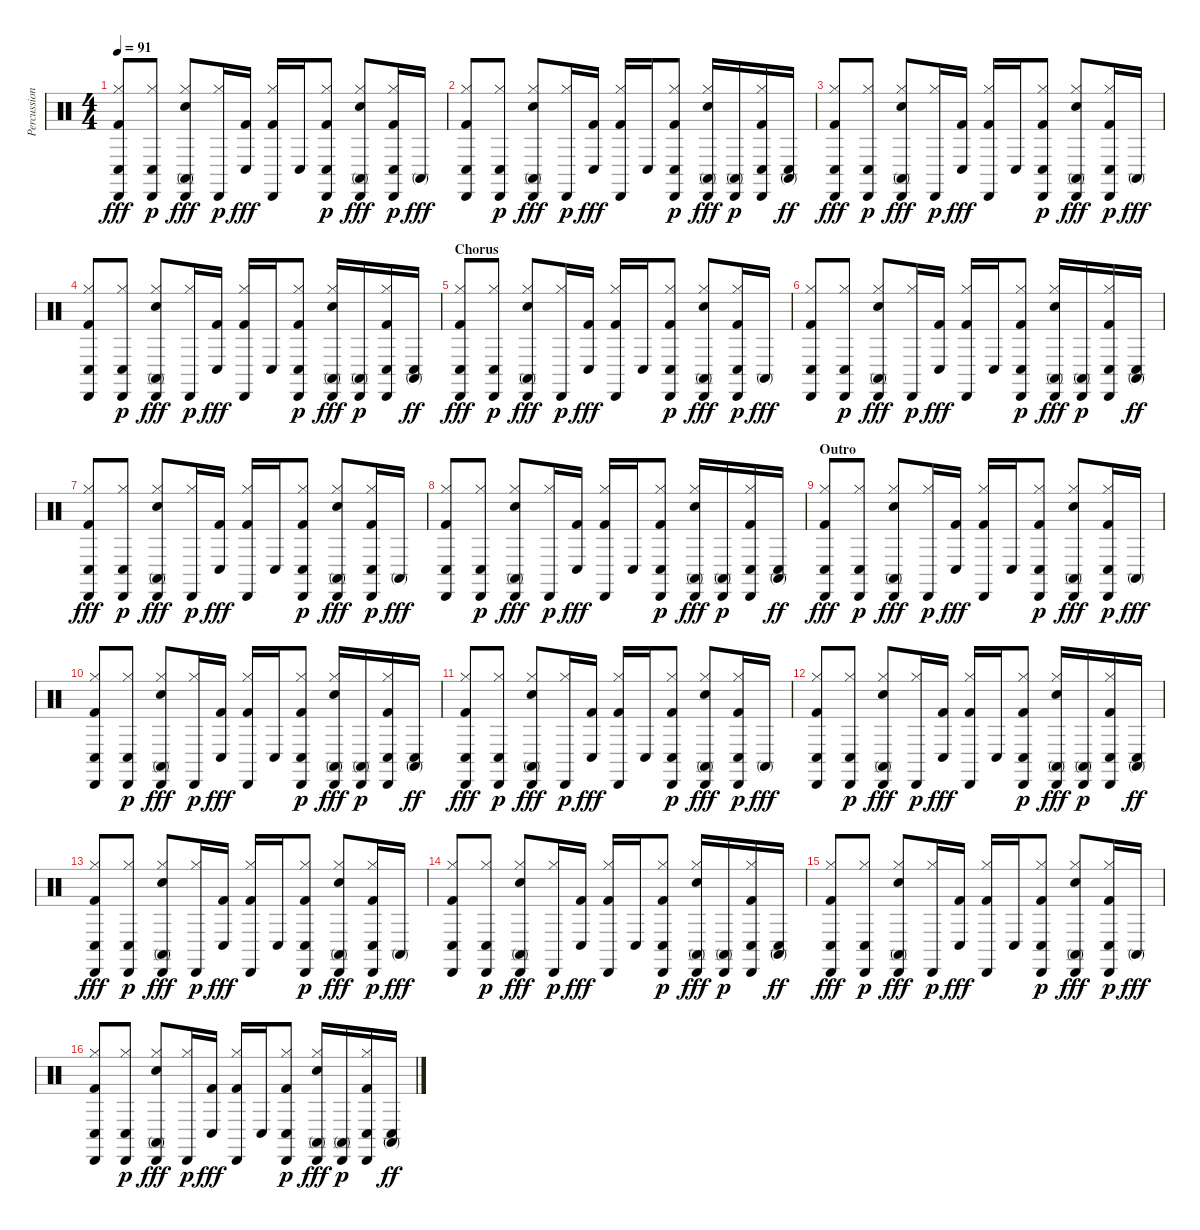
\track ("Percussion" "Percussion") {instrument percussion}
\staff {score}
\articulation defaults
\ts (4 4)
\tempo 91
\clef neutral
\ks c
("Kick (hit) 2" "Hi-Hat (closed)" "Conga low (hit)" "Cabasa (hit)").8{dy fff} ("Hi-Hat (closed)" "Conga low (hit)" "Cabasa (hit)").8{dy p} ("Snare (hit) 2" "Hi-Hat (closed)" "Conga high (mute)" "Cabasa (hit)").8{dy fff} ("Hi-Hat (closed)" "Cabasa (hit)").16{dy p} ("Kick (hit) 2" "Conga low (hit)").16{dy fff} ("Kick (hit) 2" "Hi-Hat (closed)" "Cabasa (hit)").16 "Conga low (hit)".16 ("Kick (hit) 2" "Hi-Hat (closed)" "Conga low (hit)" "Cabasa (hit)").8{dy p} ("Snare (hit) 2" "Hi-Hat (closed)" "Conga high (mute)" "Cabasa (hit)").8{dy fff} ("Kick (hit) 2" "Hi-Hat (closed)" "Conga low (hit)" "Cabasa (hit)").16{dy p} "Conga high (mute)".16{dy fff} |
("Kick (hit) 2" "Hi-Hat (closed)" "Conga low (hit)" "Cabasa (hit)").8 ("Hi-Hat (closed)" "Conga low (hit)" "Cabasa (hit)").8{dy p} ("Snare (hit) 2" "Hi-Hat (closed)" "Conga high (mute)" "Cabasa (hit)").8{dy fff} ("Hi-Hat (closed)" "Cabasa (hit)").16{dy p} ("Kick (hit) 2" "Conga low (hit)").16{dy fff} ("Kick (hit) 2" "Hi-Hat (closed)" "Cabasa (hit)").16 "Conga low (hit)".16 ("Kick (hit) 2" "Hi-Hat (closed)" "Conga low (hit)" "Cabasa (hit)").8{dy p} ("Snare (hit) 2" "Hi-Hat (closed)" "Conga high (mute)" "Cabasa (hit)").16{dy fff} ("Conga high (mute)" "Cabasa (hit)").16{dy p} ("Kick (hit) 2" "Hi-Hat (closed)" "Conga low (hit)" "Cabasa (hit)").16 ("Conga high (mute)" "Conga low (hit)").16{dy ff} |
("Kick (hit) 2" "Hi-Hat (closed)" "Conga low (hit)" "Cabasa (hit)").8{dy fff} ("Hi-Hat (closed)" "Conga low (hit)" "Cabasa (hit)").8{dy p} ("Snare (hit) 2" "Hi-Hat (closed)" "Conga high (mute)" "Cabasa (hit)").8{dy fff} ("Hi-Hat (closed)" "Cabasa (hit)").16{dy p} ("Kick (hit) 2" "Conga low (hit)").16{dy fff} ("Kick (hit) 2" "Hi-Hat (closed)" "Cabasa (hit)").16 "Conga low (hit)".16 ("Kick (hit) 2" "Hi-Hat (closed)" "Conga low (hit)" "Cabasa (hit)").8{dy p} ("Snare (hit) 2" "Hi-Hat (closed)" "Conga high (mute)" "Cabasa (hit)").8{dy fff} ("Kick (hit) 2" "Hi-Hat (closed)" "Conga low (hit)" "Cabasa (hit)").16{dy p} "Conga high (mute)".16{dy fff} |
("Kick (hit) 2" "Hi-Hat (closed)" "Conga low (hit)" "Cabasa (hit)").8 ("Hi-Hat (closed)" "Conga low (hit)" "Cabasa (hit)").8{dy p} ("Snare (hit) 2" "Hi-Hat (closed)" "Conga high (mute)" "Cabasa (hit)").8{dy fff} ("Hi-Hat (closed)" "Cabasa (hit)").16{dy p} ("Kick (hit) 2" "Conga low (hit)").16{dy fff} ("Kick (hit) 2" "Hi-Hat (closed)" "Cabasa (hit)").16 "Conga low (hit)".16 ("Kick (hit) 2" "Hi-Hat (closed)" "Conga low (hit)" "Cabasa (hit)").8{dy p} ("Snare (hit) 2" "Hi-Hat (closed)" "Conga high (mute)" "Cabasa (hit)").16{dy fff} ("Conga high (mute)" "Cabasa (hit)").16{dy p} ("Kick (hit) 2" "Hi-Hat (closed)" "Conga low (hit)" "Cabasa (hit)").16 ("Conga high (mute)" "Conga low (hit)").16{dy ff} |
\section ("" "Chorus")
("Kick (hit) 2" "Hi-Hat (closed)" "Conga low (hit)" "Cabasa (hit)").8{dy fff} ("Hi-Hat (closed)" "Conga low (hit)" "Cabasa (hit)").8{dy p} ("Snare (hit) 2" "Hi-Hat (closed)" "Conga high (mute)" "Cabasa (hit)").8{dy fff} ("Hi-Hat (closed)" "Cabasa (hit)").16{dy p} ("Kick (hit) 2" "Conga low (hit)").16{dy fff} ("Kick (hit) 2" "Hi-Hat (closed)" "Cabasa (hit)").16 "Conga low (hit)".16 ("Kick (hit) 2" "Hi-Hat (closed)" "Conga low (hit)" "Cabasa (hit)").8{dy p} ("Snare (hit) 2" "Hi-Hat (closed)" "Conga high (mute)" "Cabasa (hit)").8{dy fff} ("Kick (hit) 2" "Hi-Hat (closed)" "Conga low (hit)" "Cabasa (hit)").16{dy p} "Conga high (mute)".16{dy fff} |
("Kick (hit) 2" "Hi-Hat (closed)" "Conga low (hit)" "Cabasa (hit)").8 ("Hi-Hat (closed)" "Conga low (hit)" "Cabasa (hit)").8{dy p} ("Snare (hit) 2" "Hi-Hat (closed)" "Conga high (mute)" "Cabasa (hit)").8{dy fff} ("Hi-Hat (closed)" "Cabasa (hit)").16{dy p} ("Kick (hit) 2" "Conga low (hit)").16{dy fff} ("Kick (hit) 2" "Hi-Hat (closed)" "Cabasa (hit)").16 "Conga low (hit)".16 ("Kick (hit) 2" "Hi-Hat (closed)" "Conga low (hit)" "Cabasa (hit)").8{dy p} ("Snare (hit) 2" "Hi-Hat (closed)" "Conga high (mute)" "Cabasa (hit)").16{dy fff} ("Conga high (mute)" "Cabasa (hit)").16{dy p} ("Kick (hit) 2" "Hi-Hat (closed)" "Conga low (hit)" "Cabasa (hit)").16 ("Conga high (mute)" "Conga low (hit)").16{dy ff} |
("Kick (hit) 2" "Hi-Hat (closed)" "Conga low (hit)" "Cabasa (hit)").8{dy fff} ("Hi-Hat (closed)" "Conga low (hit)" "Cabasa (hit)").8{dy p} ("Snare (hit) 2" "Hi-Hat (closed)" "Conga high (mute)" "Cabasa (hit)").8{dy fff} ("Hi-Hat (closed)" "Cabasa (hit)").16{dy p} ("Kick (hit) 2" "Conga low (hit)").16{dy fff} ("Kick (hit) 2" "Hi-Hat (closed)" "Cabasa (hit)").16 "Conga low (hit)".16 ("Kick (hit) 2" "Hi-Hat (closed)" "Conga low (hit)" "Cabasa (hit)").8{dy p} ("Snare (hit) 2" "Hi-Hat (closed)" "Conga high (mute)" "Cabasa (hit)").8{dy fff} ("Kick (hit) 2" "Hi-Hat (closed)" "Conga low (hit)" "Cabasa (hit)").16{dy p} "Conga high (mute)".16{dy fff} |
("Kick (hit) 2" "Hi-Hat (closed)" "Conga low (hit)" "Cabasa (hit)").8 ("Hi-Hat (closed)" "Conga low (hit)" "Cabasa (hit)").8{dy p} ("Snare (hit) 2" "Hi-Hat (closed)" "Conga high (mute)" "Cabasa (hit)").8{dy fff} ("Hi-Hat (closed)" "Cabasa (hit)").16{dy p} ("Kick (hit) 2" "Conga low (hit)").16{dy fff} ("Kick (hit) 2" "Hi-Hat (closed)" "Cabasa (hit)").16 "Conga low (hit)".16 ("Kick (hit) 2" "Hi-Hat (closed)" "Conga low (hit)" "Cabasa (hit)").8{dy p} ("Snare (hit) 2" "Hi-Hat (closed)" "Conga high (mute)" "Cabasa (hit)").16{dy fff} ("Conga high (mute)" "Cabasa (hit)").16{dy p} ("Kick (hit) 2" "Hi-Hat (closed)" "Conga low (hit)" "Cabasa (hit)").16 ("Conga high (mute)" "Conga low (hit)").16{dy ff} |
\section ("" "Outro")
("Kick (hit) 2" "Hi-Hat (closed)" "Conga low (hit)" "Cabasa (hit)").8{dy fff} ("Hi-Hat (closed)" "Conga low (hit)" "Cabasa (hit)").8{dy p} ("Snare (hit) 2" "Hi-Hat (closed)" "Conga high (mute)" "Cabasa (hit)").8{dy fff} ("Hi-Hat (closed)" "Cabasa (hit)").16{dy p} ("Kick (hit) 2" "Conga low (hit)").16{dy fff} ("Kick (hit) 2" "Hi-Hat (closed)" "Cabasa (hit)").16 "Conga low (hit)".16 ("Kick (hit) 2" "Hi-Hat (closed)" "Conga low (hit)" "Cabasa (hit)").8{dy p} ("Snare (hit) 2" "Hi-Hat (closed)" "Conga high (mute)" "Cabasa (hit)").8{dy fff} ("Kick (hit) 2" "Hi-Hat (closed)" "Conga low (hit)" "Cabasa (hit)").16{dy p} "Conga high (mute)".16{dy fff} |
("Kick (hit) 2" "Hi-Hat (closed)" "Conga low (hit)" "Cabasa (hit)").8 ("Hi-Hat (closed)" "Conga low (hit)" "Cabasa (hit)").8{dy p} ("Snare (hit) 2" "Hi-Hat (closed)" "Conga high (mute)" "Cabasa (hit)").8{dy fff} ("Hi-Hat (closed)" "Cabasa (hit)").16{dy p} ("Kick (hit) 2" "Conga low (hit)").16{dy fff} ("Kick (hit) 2" "Hi-Hat (closed)" "Cabasa (hit)").16 "Conga low (hit)".16 ("Kick (hit) 2" "Hi-Hat (closed)" "Conga low (hit)" "Cabasa (hit)").8{dy p} ("Snare (hit) 2" "Hi-Hat (closed)" "Conga high (mute)" "Cabasa (hit)").16{dy fff} ("Conga high (mute)" "Cabasa (hit)").16{dy p} ("Kick (hit) 2" "Hi-Hat (closed)" "Conga low (hit)" "Cabasa (hit)").16 ("Conga high (mute)" "Conga low (hit)").16{dy ff} |
("Kick (hit) 2" "Hi-Hat (closed)" "Conga low (hit)" "Cabasa (hit)").8{dy fff} ("Hi-Hat (closed)" "Conga low (hit)" "Cabasa (hit)").8{dy p} ("Snare (hit) 2" "Hi-Hat (closed)" "Conga high (mute)" "Cabasa (hit)").8{dy fff} ("Hi-Hat (closed)" "Cabasa (hit)").16{dy p} ("Kick (hit) 2" "Conga low (hit)").16{dy fff} ("Kick (hit) 2" "Hi-Hat (closed)" "Cabasa (hit)").16 "Conga low (hit)".16 ("Kick (hit) 2" "Hi-Hat (closed)" "Conga low (hit)" "Cabasa (hit)").8{dy p} ("Snare (hit) 2" "Hi-Hat (closed)" "Conga high (mute)" "Cabasa (hit)").8{dy fff} ("Kick (hit) 2" "Hi-Hat (closed)" "Conga low (hit)" "Cabasa (hit)").16{dy p} "Conga high (mute)".16{dy fff} |
("Kick (hit) 2" "Hi-Hat (closed)" "Conga low (hit)" "Cabasa (hit)").8 ("Hi-Hat (closed)" "Conga low (hit)" "Cabasa (hit)").8{dy p} ("Snare (hit) 2" "Hi-Hat (closed)" "Conga high (mute)" "Cabasa (hit)").8{dy fff} ("Hi-Hat (closed)" "Cabasa (hit)").16{dy p} ("Kick (hit) 2" "Conga low (hit)").16{dy fff} ("Kick (hit) 2" "Hi-Hat (closed)" "Cabasa (hit)").16 "Conga low (hit)".16 ("Kick (hit) 2" "Hi-Hat (closed)" "Conga low (hit)" "Cabasa (hit)").8{dy p} ("Snare (hit) 2" "Hi-Hat (closed)" "Conga high (mute)" "Cabasa (hit)").16{dy fff} ("Conga high (mute)" "Cabasa (hit)").16{dy p} ("Kick (hit) 2" "Hi-Hat (closed)" "Conga low (hit)" "Cabasa (hit)").16 ("Conga high (mute)" "Conga low (hit)").16{dy ff} |
("Kick (hit) 2" "Hi-Hat (closed)" "Conga low (hit)" "Cabasa (hit)").8{dy fff} ("Hi-Hat (closed)" "Conga low (hit)" "Cabasa (hit)").8{dy p} ("Snare (hit) 2" "Hi-Hat (closed)" "Conga high (mute)" "Cabasa (hit)").8{dy fff} ("Hi-Hat (closed)" "Cabasa (hit)").16{dy p} ("Kick (hit) 2" "Conga low (hit)").16{dy fff} ("Kick (hit) 2" "Hi-Hat (closed)" "Cabasa (hit)").16 "Conga low (hit)".16 ("Kick (hit) 2" "Hi-Hat (closed)" "Conga low (hit)" "Cabasa (hit)").8{dy p} ("Snare (hit) 2" "Hi-Hat (closed)" "Conga high (mute)" "Cabasa (hit)").8{dy fff} ("Kick (hit) 2" "Hi-Hat (closed)" "Conga low (hit)" "Cabasa (hit)").16{dy p} "Conga high (mute)".16{dy fff} |
("Kick (hit) 2" "Hi-Hat (closed)" "Conga low (hit)" "Cabasa (hit)").8 ("Hi-Hat (closed)" "Conga low (hit)" "Cabasa (hit)").8{dy p} ("Snare (hit) 2" "Hi-Hat (closed)" "Conga high (mute)" "Cabasa (hit)").8{dy fff} ("Hi-Hat (closed)" "Cabasa (hit)").16{dy p} ("Kick (hit) 2" "Conga low (hit)").16{dy fff} ("Kick (hit) 2" "Hi-Hat (closed)" "Cabasa (hit)").16 "Conga low (hit)".16 ("Kick (hit) 2" "Hi-Hat (closed)" "Conga low (hit)" "Cabasa (hit)").8{dy p} ("Snare (hit) 2" "Hi-Hat (closed)" "Conga high (mute)" "Cabasa (hit)").16{dy fff} ("Conga high (mute)" "Cabasa (hit)").16{dy p} ("Kick (hit) 2" "Hi-Hat (closed)" "Conga low (hit)" "Cabasa (hit)").16 ("Conga high (mute)" "Conga low (hit)").16{dy ff} |
("Kick (hit) 2" "Hi-Hat (closed)" "Conga low (hit)" "Cabasa (hit)").8{dy fff} ("Hi-Hat (closed)" "Conga low (hit)" "Cabasa (hit)").8{dy p} ("Snare (hit) 2" "Hi-Hat (closed)" "Conga high (mute)" "Cabasa (hit)").8{dy fff} ("Hi-Hat (closed)" "Cabasa (hit)").16{dy p} ("Kick (hit) 2" "Conga low (hit)").16{dy fff} ("Kick (hit) 2" "Hi-Hat (closed)" "Cabasa (hit)").16 "Conga low (hit)".16 ("Kick (hit) 2" "Hi-Hat (closed)" "Conga low (hit)" "Cabasa (hit)").8{dy p} ("Snare (hit) 2" "Hi-Hat (closed)" "Conga high (mute)" "Cabasa (hit)").8{dy fff} ("Kick (hit) 2" "Hi-Hat (closed)" "Conga low (hit)" "Cabasa (hit)").16{dy p} "Conga high (mute)".16{dy fff} |
("Kick (hit) 2" "Hi-Hat (closed)" "Conga low (hit)" "Cabasa (hit)").8 ("Hi-Hat (closed)" "Conga low (hit)" "Cabasa (hit)").8{dy p} ("Snare (hit) 2" "Hi-Hat (closed)" "Conga high (mute)" "Cabasa (hit)").8{dy fff} ("Hi-Hat (closed)" "Cabasa (hit)").16{dy p} ("Kick (hit) 2" "Conga low (hit)").16{dy fff} ("Kick (hit) 2" "Hi-Hat (closed)" "Cabasa (hit)").16 "Conga low (hit)".16 ("Kick (hit) 2" "Hi-Hat (closed)" "Conga low (hit)" "Cabasa (hit)").8{dy p} ("Snare (hit) 2" "Hi-Hat (closed)" "Conga high (mute)" "Cabasa (hit)").16{dy fff} ("Conga high (mute)" "Cabasa (hit)").16{dy p} ("Kick (hit) 2" "Hi-Hat (closed)" "Conga low (hit)" "Cabasa (hit)").16 ("Conga high (mute)" "Conga low (hit)").16{dy ff}
